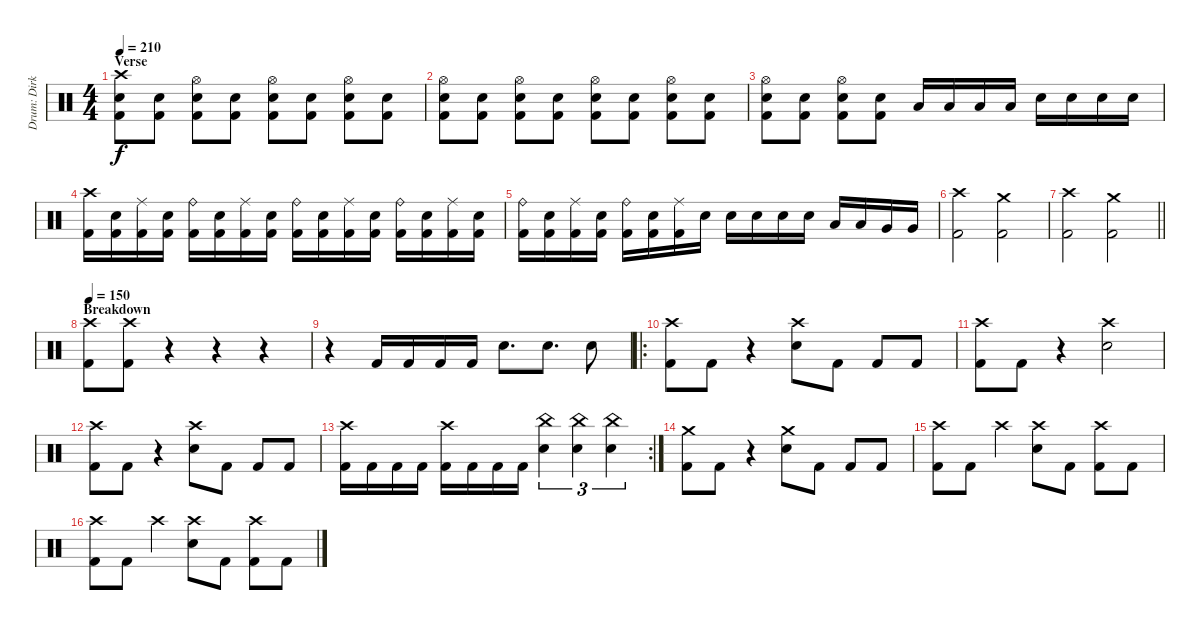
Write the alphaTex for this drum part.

\track ("Drum: Dirk" "Drum: Dirk") {instrument percussion}
\staff {score}
\articulation defaults
\ts (4 4)
\section ("" "Verse")
\tempo 210
\clef neutral
\ks c
("Crash high (hit)" "Electric Snare (hit)" "Kick (hit) 2").8{dy f} ("Electric Snare (hit)" "Kick (hit) 2").8 ("Hi-Hat (open)" "Electric Snare (hit)" "Kick (hit) 2").8 ("Electric Snare (hit)" "Kick (hit) 2").8 ("Hi-Hat (open)" "Electric Snare (hit)" "Kick (hit) 2").8 ("Electric Snare (hit)" "Kick (hit) 2").8 ("Hi-Hat (open)" "Electric Snare (hit)" "Kick (hit) 2").8 ("Electric Snare (hit)" "Kick (hit) 2").8 |
("Hi-Hat (open)" "Electric Snare (hit)" "Kick (hit) 2").8 ("Electric Snare (hit)" "Kick (hit) 2").8 ("Hi-Hat (open)" "Electric Snare (hit)" "Kick (hit) 2").8 ("Electric Snare (hit)" "Kick (hit) 2").8 ("Hi-Hat (open)" "Electric Snare (hit)" "Kick (hit) 2").8 ("Electric Snare (hit)" "Kick (hit) 2").8 ("Hi-Hat (open)" "Electric Snare (hit)" "Kick (hit) 2").8 ("Electric Snare (hit)" "Kick (hit) 2").8 |
("Hi-Hat (open)" "Electric Snare (hit)" "Kick (hit) 2").8 ("Electric Snare (hit)" "Kick (hit) 2").8 ("Hi-Hat (open)" "Electric Snare (hit)" "Kick (hit) 2").8 ("Electric Snare (hit)" "Kick (hit) 2").8 "Low Tom (hit)".16 "Low Tom (hit)".16 "Low Tom (hit)".16 "Low Tom (hit)".16 "Electric Snare (hit)".16 "Electric Snare (hit)".16 "Electric Snare (hit)".16 "Electric Snare (hit)".16 |
("Crash high (hit)" "Kick (hit) 2").16 ("Electric Snare (hit)" "Kick (hit) 2").16 ("Ride (middle)" "Kick (hit) 2").16 ("Electric Snare (hit)" "Kick (hit) 2").16 ("Ride (bell)" "Kick (hit) 2").16 ("Electric Snare (hit)" "Kick (hit) 2").16 ("Ride (middle)" "Kick (hit) 2").16 ("Electric Snare (hit)" "Kick (hit) 2").16 ("Ride (bell)" "Kick (hit) 2").16 ("Electric Snare (hit)" "Kick (hit) 2").16 ("Ride (middle)" "Kick (hit) 2").16 ("Electric Snare (hit)" "Kick (hit) 2").16 ("Ride (bell)" "Kick (hit) 2").16 ("Electric Snare (hit)" "Kick (hit) 2").16 ("Ride (middle)" "Kick (hit) 2").16 ("Electric Snare (hit)" "Kick (hit) 2").16 |
("Ride (bell)" "Kick (hit) 2").16 ("Electric Snare (hit)" "Kick (hit) 2").16 ("Ride (middle)" "Kick (hit) 2").16 ("Electric Snare (hit)" "Kick (hit) 2").16 ("Ride (bell)" "Kick (hit) 2").16 ("Electric Snare (hit)" "Kick (hit) 2").16 ("Ride (middle)" "Kick (hit) 2").16 "Electric Snare (hit)".16 "Electric Snare (hit)".16 "Electric Snare (hit)".16 "Electric Snare (hit)".16 "Electric Snare (hit)".16 "Low Tom (hit)".16 "Low Tom (hit)".16 "Very Low Tom (hit)".16 "Very Low Tom (hit)".16 |
("Crash high (hit)" "Kick (hit) 2").2 ("Crash medium (hit)" "Kick (hit) 2").2 |
\barLineRight lightlight
("Crash high (hit)" "Kick (hit) 2").2 ("Crash medium (hit)" "Kick (hit) 2").2 |
\section ("" "Breakdown")
\tempo 150
("Crash high (hit)" "Kick (hit) 2").8 ("Crash high (hit)" "Kick (hit) 2").8 r.4{volume 0} r.4 r.4 |
r.4 "Kick (hit) 2".16{volume 12} "Kick (hit) 2".16 "Kick (hit) 2".16 "Kick (hit) 2".16 "Electric Snare (hit)".8{d} "Electric Snare (hit)".8{d} "Electric Snare (hit)".8 |
\ro
("Crash high (hit)" "Kick (hit) 2").8 "Kick (hit) 2".8 r.4 ("Crash high (hit)" "Electric Snare (hit)").8 "Kick (hit) 2".8 "Kick (hit) 2".8 "Kick (hit) 2".8 |
("Crash high (hit)" "Kick (hit) 2").8 "Kick (hit) 2".8 r.4 ("Crash high (hit)" "Electric Snare (hit)").2 |
("Crash high (hit)" "Kick (hit) 2").8 "Kick (hit) 2".8 r.4 ("Crash high (hit)" "Electric Snare (hit)").8 "Kick (hit) 2".8 "Kick (hit) 2".8 "Kick (hit) 2".8 |
\rc 2
("Crash high (hit)" "Kick (hit) 2").16 "Kick (hit) 2".16 "Kick (hit) 2".16 "Kick (hit) 2".16 ("Crash high (hit)" "Kick (hit) 2").16 "Kick (hit) 2".16 "Kick (hit) 2".16 "Kick (hit) 2".16 ("China (hit)" "Electric Snare (hit)").4{tu (3 2)} ("China (hit)" "Electric Snare (hit)").4{tu (3 2)} ("China (hit)" "Electric Snare (hit)").4{tu (3 2)} |
("Crash medium (hit)" "Kick (hit) 2").8 "Kick (hit) 2".8 r.4 ("Crash medium (hit)" "Electric Snare (hit)").8 "Kick (hit) 2".8 "Kick (hit) 2".8 "Kick (hit) 2".8 |
("Crash high (hit)" "Kick (hit) 2").8 "Kick (hit) 2".8 "Crash high (hit)".4 ("Crash high (hit)" "Electric Snare (hit)").8 "Kick (hit) 2".8 ("Crash high (hit)" "Kick (hit) 2").8 "Kick (hit) 2".8 |
("Crash high (hit)" "Kick (hit) 2").8 "Kick (hit) 2".8 "Crash high (hit)".4 ("Crash high (hit)" "Electric Snare (hit)").8 "Kick (hit) 2".8 ("Crash high (hit)" "Kick (hit) 2").8 "Kick (hit) 2".8
